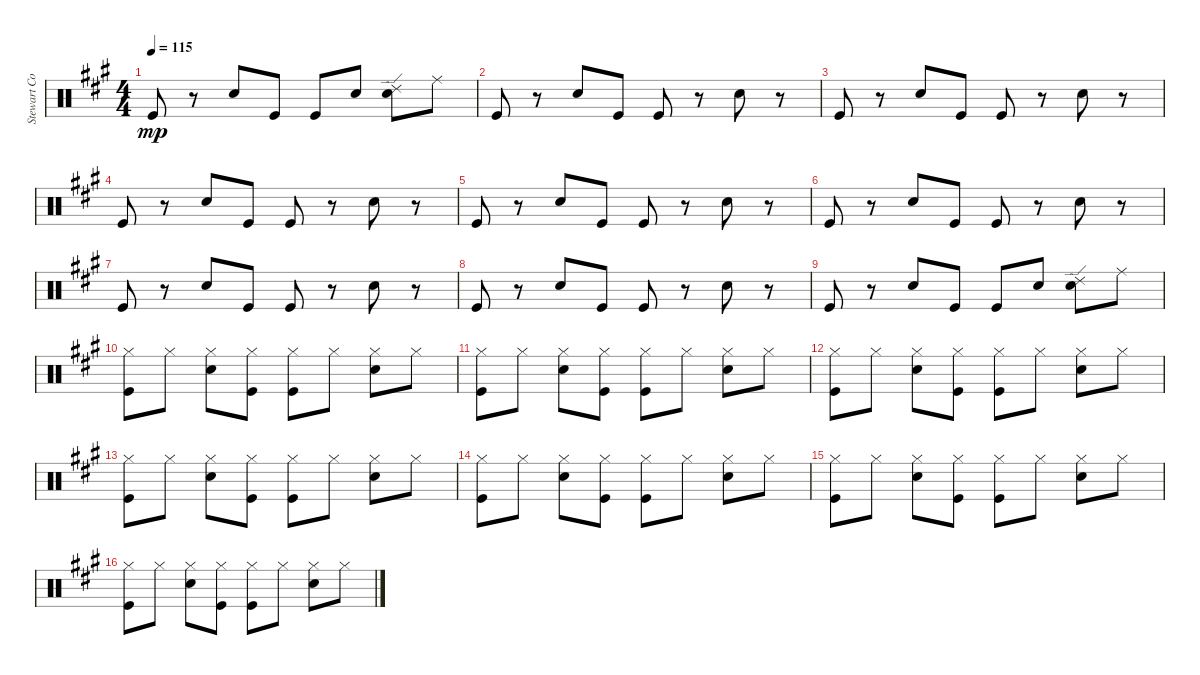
\track ("Stewart Copeland" "Stewart Co") {instrument percussion}
\staff {score}
\articulation defaults
\ts (4 4)
\tempo 115
\clef neutral
\ks a "Kick (hit)".8{dy mp}
r.8 "Snare (hit) 2".8 "Kick (hit)".8 "Kick (hit)".8 "Snare (hit) 2".8 ("Snare (hit) 2" "Ride (edge) 2").8 "Ride (middle)".8 |
"Kick (hit)".8 r.8 "Snare (hit) 2".8 "Kick (hit)".8 "Kick (hit)".8 r.8 "Snare (hit) 2".8 r.8 |
"Kick (hit)".8 r.8 "Snare (hit) 2".8 "Kick (hit)".8 "Kick (hit)".8 r.8 "Snare (hit) 2".8 r.8 |
"Kick (hit)".8 r.8 "Snare (hit) 2".8 "Kick (hit)".8 "Kick (hit)".8 r.8 "Snare (hit) 2".8 r.8 |
"Kick (hit)".8 r.8 "Snare (hit) 2".8 "Kick (hit)".8 "Kick (hit)".8 r.8 "Snare (hit) 2".8 r.8 |
"Kick (hit)".8 r.8 "Snare (hit) 2".8 "Kick (hit)".8 "Kick (hit)".8 r.8 "Snare (hit) 2".8 r.8 |
"Kick (hit)".8 r.8 "Snare (hit) 2".8 "Kick (hit)".8 "Kick (hit)".8 r.8 "Snare (hit) 2".8 r.8 |
"Kick (hit)".8 r.8 "Snare (hit) 2".8 "Kick (hit)".8 "Kick (hit)".8 r.8 "Snare (hit) 2".8 r.8 |
"Kick (hit)".8 r.8 "Snare (hit) 2".8 "Kick (hit)".8 "Kick (hit)".8 "Snare (hit) 2".8 ("Snare (hit) 2" "Ride (edge) 2").8 "Ride (middle)".8 |
("Kick (hit)" "Hi-Hat (closed)").8 "Hi-Hat (closed)".8 ("Snare (hit) 2" "Hi-Hat (closed)").8 ("Kick (hit)" "Hi-Hat (closed)").8 ("Kick (hit)" "Hi-Hat (closed)").8 "Hi-Hat (closed)".8 ("Snare (hit) 2" "Hi-Hat (closed)").8 "Hi-Hat (closed)".8 |
("Kick (hit)" "Hi-Hat (closed)").8 "Hi-Hat (closed)".8 ("Snare (hit) 2" "Hi-Hat (closed)").8 ("Kick (hit)" "Hi-Hat (closed)").8 ("Kick (hit)" "Hi-Hat (closed)").8 "Hi-Hat (closed)".8 ("Snare (hit) 2" "Hi-Hat (closed)").8 "Hi-Hat (closed)".8 |
("Kick (hit)" "Hi-Hat (closed)").8 "Hi-Hat (closed)".8 ("Snare (hit) 2" "Hi-Hat (closed)").8 ("Kick (hit)" "Hi-Hat (closed)").8 ("Kick (hit)" "Hi-Hat (closed)").8 "Hi-Hat (closed)".8 ("Snare (hit) 2" "Hi-Hat (closed)").8 "Hi-Hat (closed)".8 |
("Kick (hit)" "Hi-Hat (closed)").8 "Hi-Hat (closed)".8 ("Snare (hit) 2" "Hi-Hat (closed)").8 ("Kick (hit)" "Hi-Hat (closed)").8 ("Kick (hit)" "Hi-Hat (closed)").8 "Hi-Hat (closed)".8 ("Snare (hit) 2" "Hi-Hat (closed)").8 "Hi-Hat (closed)".8 |
("Kick (hit)" "Hi-Hat (closed)").8 "Hi-Hat (closed)".8 ("Snare (hit) 2" "Hi-Hat (closed)").8 ("Kick (hit)" "Hi-Hat (closed)").8 ("Kick (hit)" "Hi-Hat (closed)").8 "Hi-Hat (closed)".8 ("Snare (hit) 2" "Hi-Hat (closed)").8 "Hi-Hat (closed)".8 |
("Kick (hit)" "Hi-Hat (closed)").8 "Hi-Hat (closed)".8 ("Snare (hit) 2" "Hi-Hat (closed)").8 ("Kick (hit)" "Hi-Hat (closed)").8 ("Kick (hit)" "Hi-Hat (closed)").8 "Hi-Hat (closed)".8 ("Snare (hit) 2" "Hi-Hat (closed)").8 "Hi-Hat (closed)".8 |
("Kick (hit)" "Hi-Hat (closed)").8 "Hi-Hat (closed)".8 ("Snare (hit) 2" "Hi-Hat (closed)").8 ("Kick (hit)" "Hi-Hat (closed)").8 ("Kick (hit)" "Hi-Hat (closed)").8 "Hi-Hat (closed)".8 ("Snare (hit) 2" "Hi-Hat (closed)").8 "Hi-Hat (closed)".8
